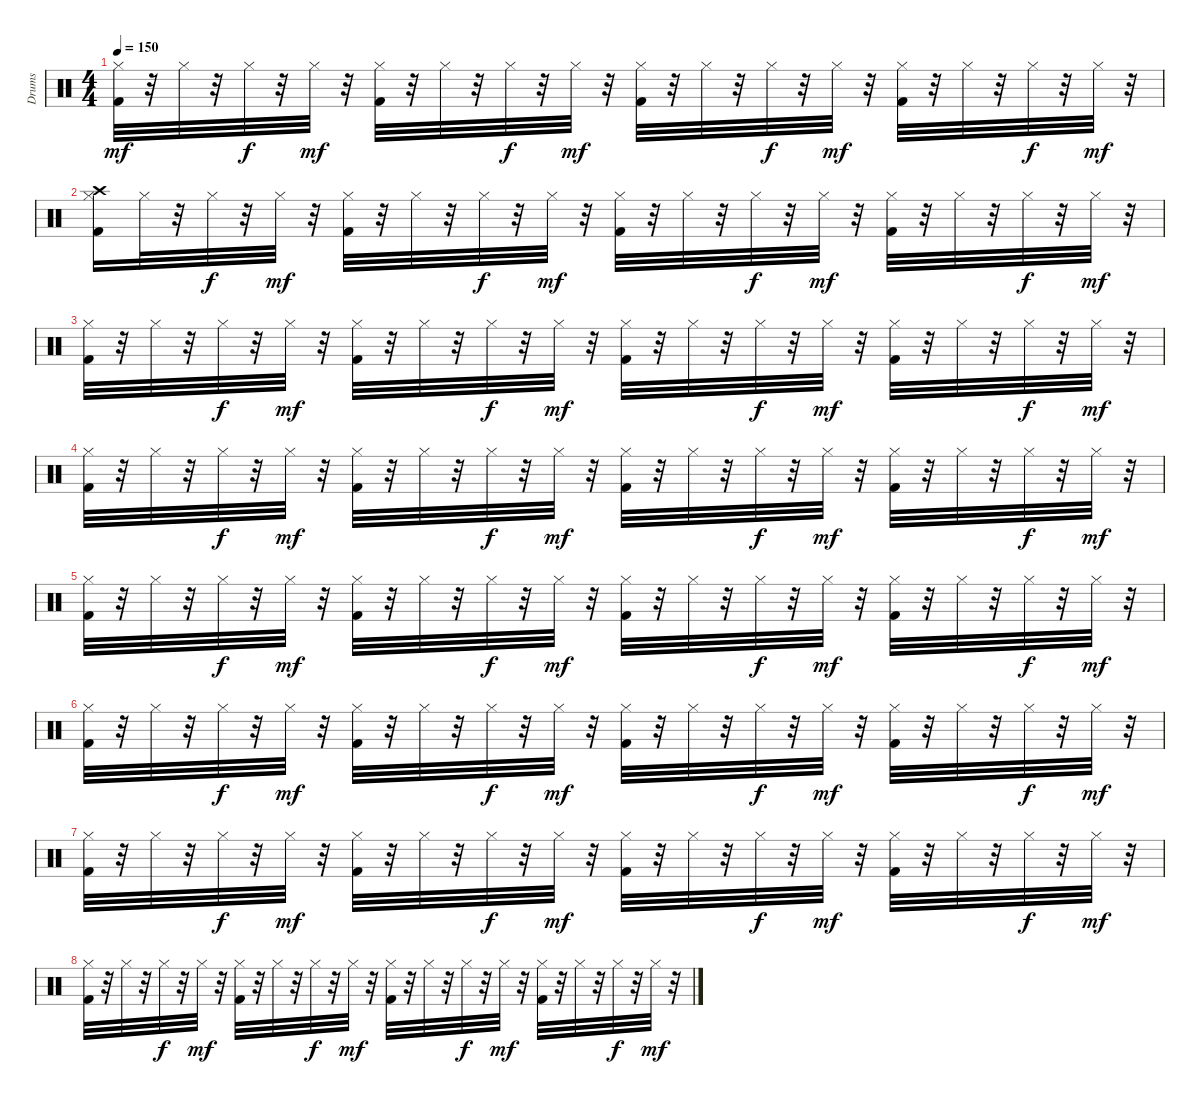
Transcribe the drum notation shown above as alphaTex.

\track ("Drums" "Drums") {instrument percussion}
\staff {score}
\articulation defaults
\ts (4 4)
\tempo 150
\clef neutral
\ks c
("Hi-Hat (closed)" "Kick (hit) 2").32{dy mf} r.32 "Hi-Hat (closed)".32 r.32 "Hi-Hat (closed)".32{dy f} r.32 "Hi-Hat (closed)".32{dy mf} r.32 ("Hi-Hat (closed)" "Kick (hit) 2").32 r.32 "Hi-Hat (closed)".32 r.32 "Hi-Hat (closed)".32{dy f} r.32 "Hi-Hat (closed)".32{dy mf} r.32 ("Hi-Hat (closed)" "Kick (hit) 2").32 r.32 "Hi-Hat (closed)".32 r.32 "Hi-Hat (closed)".32{dy f} r.32 "Hi-Hat (closed)".32{dy mf} r.32 ("Hi-Hat (closed)" "Kick (hit) 2").32 r.32 "Hi-Hat (closed)".32 r.32 "Hi-Hat (closed)".32{dy f} r.32 "Hi-Hat (closed)".32{dy mf} r.32 |
("Hi-Hat (closed)" "Kick (hit) 2" "Crash high (hit)").16 "Hi-Hat (closed)".32 r.32 "Hi-Hat (closed)".32{dy f} r.32 "Hi-Hat (closed)".32{dy mf} r.32 ("Hi-Hat (closed)" "Kick (hit) 2").32 r.32 "Hi-Hat (closed)".32 r.32 "Hi-Hat (closed)".32{dy f} r.32 "Hi-Hat (closed)".32{dy mf} r.32 ("Hi-Hat (closed)" "Kick (hit) 2").32 r.32 "Hi-Hat (closed)".32 r.32 "Hi-Hat (closed)".32{dy f} r.32 "Hi-Hat (closed)".32{dy mf} r.32 ("Hi-Hat (closed)" "Kick (hit) 2").32 r.32 "Hi-Hat (closed)".32 r.32 "Hi-Hat (closed)".32{dy f} r.32 "Hi-Hat (closed)".32{dy mf} r.32 |
("Hi-Hat (closed)" "Kick (hit) 2").32 r.32 "Hi-Hat (closed)".32 r.32 "Hi-Hat (closed)".32{dy f} r.32 "Hi-Hat (closed)".32{dy mf} r.32 ("Hi-Hat (closed)" "Kick (hit) 2").32 r.32 "Hi-Hat (closed)".32 r.32 "Hi-Hat (closed)".32{dy f} r.32 "Hi-Hat (closed)".32{dy mf} r.32 ("Hi-Hat (closed)" "Kick (hit) 2").32 r.32 "Hi-Hat (closed)".32 r.32 "Hi-Hat (closed)".32{dy f} r.32 "Hi-Hat (closed)".32{dy mf} r.32 ("Hi-Hat (closed)" "Kick (hit) 2").32 r.32 "Hi-Hat (closed)".32 r.32 "Hi-Hat (closed)".32{dy f} r.32 "Hi-Hat (closed)".32{dy mf} r.32 |
("Hi-Hat (closed)" "Kick (hit) 2").32 r.32 "Hi-Hat (closed)".32 r.32 "Hi-Hat (closed)".32{dy f} r.32 "Hi-Hat (closed)".32{dy mf} r.32 ("Hi-Hat (closed)" "Kick (hit) 2").32 r.32 "Hi-Hat (closed)".32 r.32 "Hi-Hat (closed)".32{dy f} r.32 "Hi-Hat (closed)".32{dy mf} r.32 ("Hi-Hat (closed)" "Kick (hit) 2").32 r.32 "Hi-Hat (closed)".32 r.32 "Hi-Hat (closed)".32{dy f} r.32 "Hi-Hat (closed)".32{dy mf} r.32 ("Hi-Hat (closed)" "Kick (hit) 2").32 r.32 "Hi-Hat (closed)".32 r.32 "Hi-Hat (closed)".32{dy f} r.32 "Hi-Hat (closed)".32{dy mf} r.32 |
("Hi-Hat (closed)" "Kick (hit) 2").32 r.32 "Hi-Hat (closed)".32 r.32 "Hi-Hat (closed)".32{dy f} r.32 "Hi-Hat (closed)".32{dy mf} r.32 ("Hi-Hat (closed)" "Kick (hit) 2").32 r.32 "Hi-Hat (closed)".32 r.32 "Hi-Hat (closed)".32{dy f} r.32 "Hi-Hat (closed)".32{dy mf} r.32 ("Hi-Hat (closed)" "Kick (hit) 2").32 r.32 "Hi-Hat (closed)".32 r.32 "Hi-Hat (closed)".32{dy f} r.32 "Hi-Hat (closed)".32{dy mf} r.32 ("Hi-Hat (closed)" "Kick (hit) 2").32 r.32 "Hi-Hat (closed)".32 r.32 "Hi-Hat (closed)".32{dy f} r.32 "Hi-Hat (closed)".32{dy mf} r.32 |
("Hi-Hat (closed)" "Kick (hit) 2").32 r.32 "Hi-Hat (closed)".32 r.32 "Hi-Hat (closed)".32{dy f} r.32 "Hi-Hat (closed)".32{dy mf} r.32 ("Hi-Hat (closed)" "Kick (hit) 2").32 r.32 "Hi-Hat (closed)".32 r.32 "Hi-Hat (closed)".32{dy f} r.32 "Hi-Hat (closed)".32{dy mf} r.32 ("Hi-Hat (closed)" "Kick (hit) 2").32 r.32 "Hi-Hat (closed)".32 r.32 "Hi-Hat (closed)".32{dy f} r.32 "Hi-Hat (closed)".32{dy mf} r.32 ("Hi-Hat (closed)" "Kick (hit) 2").32 r.32 "Hi-Hat (closed)".32 r.32 "Hi-Hat (closed)".32{dy f} r.32 "Hi-Hat (closed)".32{dy mf} r.32 |
("Hi-Hat (closed)" "Kick (hit) 2").32 r.32 "Hi-Hat (closed)".32 r.32 "Hi-Hat (closed)".32{dy f} r.32 "Hi-Hat (closed)".32{dy mf} r.32 ("Hi-Hat (closed)" "Kick (hit) 2").32 r.32 "Hi-Hat (closed)".32 r.32 "Hi-Hat (closed)".32{dy f} r.32 "Hi-Hat (closed)".32{dy mf} r.32 ("Hi-Hat (closed)" "Kick (hit) 2").32 r.32 "Hi-Hat (closed)".32 r.32 "Hi-Hat (closed)".32{dy f} r.32 "Hi-Hat (closed)".32{dy mf} r.32 ("Hi-Hat (closed)" "Kick (hit) 2").32 r.32 "Hi-Hat (closed)".32 r.32 "Hi-Hat (closed)".32{dy f} r.32 "Hi-Hat (closed)".32{dy mf} r.32 |
("Hi-Hat (closed)" "Kick (hit) 2").32 r.32 "Hi-Hat (closed)".32 r.32 "Hi-Hat (closed)".32{dy f} r.32 "Hi-Hat (closed)".32{dy mf} r.32 ("Hi-Hat (closed)" "Kick (hit) 2").32 r.32 "Hi-Hat (closed)".32 r.32 "Hi-Hat (closed)".32{dy f} r.32 "Hi-Hat (closed)".32{dy mf} r.32 ("Hi-Hat (closed)" "Kick (hit) 2").32 r.32 "Hi-Hat (closed)".32 r.32 "Hi-Hat (closed)".32{dy f} r.32 "Hi-Hat (closed)".32{dy mf} r.32 ("Hi-Hat (closed)" "Kick (hit) 2").32 r.32 "Hi-Hat (closed)".32 r.32 "Hi-Hat (closed)".32{dy f} r.32 "Hi-Hat (closed)".32{dy mf} r.32
